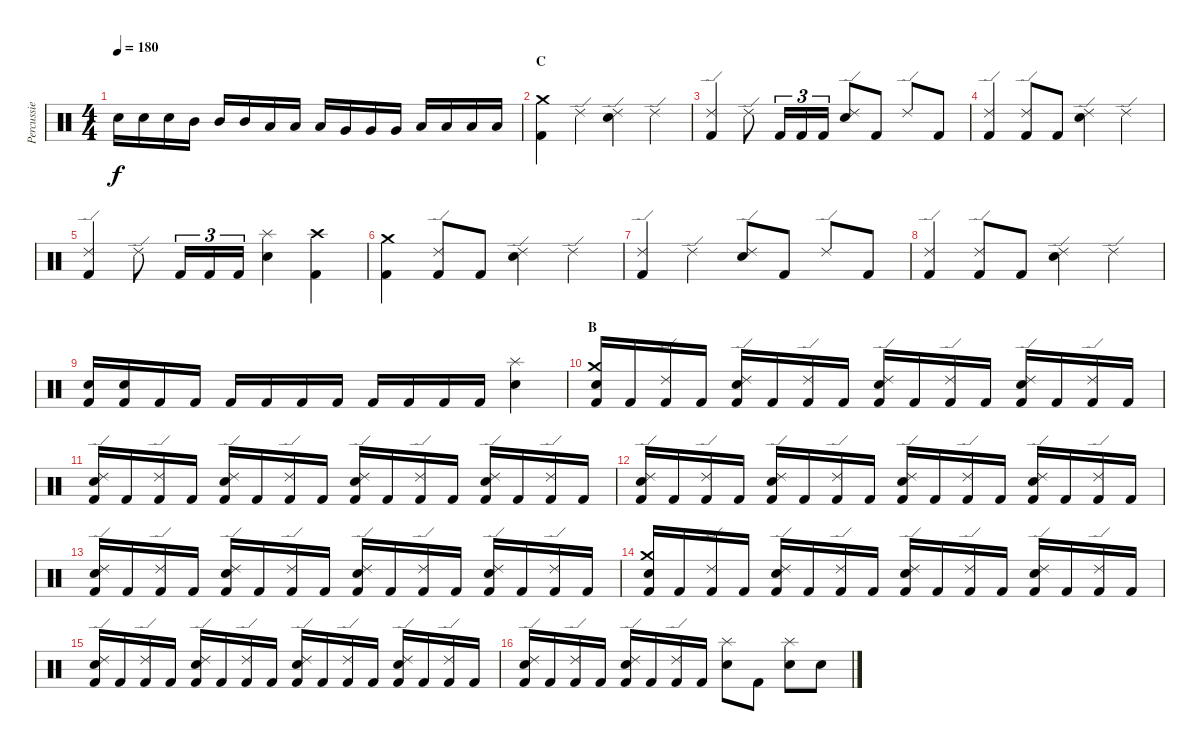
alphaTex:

\track ("Percussie" "Percussie") {instrument percussion}
\staff {score}
\articulation defaults
\ts (4 4)
\tempo 180
\clef neutral
\ks c "Electric Snare (hit)".16{dy f} "Electric Snare (hit)".16 "Electric Snare (hit)".16 "Mid Tom (hit)".16 "Mid Tom (hit)".16 "Mid Tom (hit)".16 "Low Tom (hit)".16 "Low Tom (hit)".16 "Low Tom (hit)".16 "Very Low Tom (hit)".16 "Very Low Tom (hit)".16 "Very Low Tom (hit)".16 "Low Floor Tom (hit)".16 "Low Floor Tom (hit)".16 "Low Floor Tom (hit)".16 "Low Floor Tom (hit)".16
|
\section ("" "C")
("Crash medium (hit)" "Kick (hit) 2").4 "Ride (edge) 2".4 ("Ride (edge) 2" "Electric Snare (hit)").4 "Ride (edge) 2".4 |
("Ride (edge) 2" "Kick (hit) 2").4 "Ride (edge) 2".8 "Kick (hit) 2".16{tu (3 2)} "Kick (hit) 2".16{tu (3 2)} "Kick (hit) 2".16{tu (3 2)} ("Ride (edge) 2" "Electric Snare (hit)").8 "Kick (hit) 2".8 "Ride (edge) 2".8 "Kick (hit) 2".8 |
("Ride (edge) 2" "Kick (hit) 2").4 ("Ride (edge) 2" "Kick (hit) 2").8 "Kick (hit) 2".8 ("Ride (edge) 2" "Electric Snare (hit)").4 "Ride (edge) 2".4 |
("Ride (edge) 2" "Kick (hit) 2").4 "Ride (edge) 2".8 "Kick (hit) 2".16{tu (3 2)} "Kick (hit) 2".16{tu (3 2)} "Kick (hit) 2".16{tu (3 2)} ("Splash (hit)" "Electric Snare (hit)").4 ("Crash high (hit)" "Kick (hit) 2").4 |
("Crash medium (hit)" "Kick (hit) 2").4 ("Ride (edge) 2" "Kick (hit) 2").8 "Kick (hit) 2".8 ("Ride (edge) 2" "Electric Snare (hit)").4 "Ride (edge) 2".4 |
("Ride (edge) 2" "Kick (hit) 2").4 "Ride (edge) 2".4 ("Ride (edge) 2" "Electric Snare (hit)").8 "Kick (hit) 2".8 "Ride (edge) 2".8 "Kick (hit) 2".8 |
("Ride (edge) 2" "Kick (hit) 2").4 ("Ride (edge) 2" "Kick (hit) 2").8 "Kick (hit) 2".8 ("Ride (edge) 2" "Electric Snare (hit)").4 "Ride (edge) 2".4 |
("Electric Snare (hit)" "Kick (hit) 2").16 ("Electric Snare (hit)" "Kick (hit) 2").16 "Kick (hit) 2".16 "Kick (hit) 2".16 "Kick (hit) 2".16 "Kick (hit) 2".16 "Kick (hit) 2".16 "Kick (hit) 2".16 "Kick (hit) 2".16 "Kick (hit) 2".16 "Kick (hit) 2".16 "Kick (hit) 2".16 ("Splash (hit)" "Electric Snare (hit)").4 |
\section ("" "B")
("Crash medium (hit)" "Electric Snare (hit)" "Kick (hit) 2").16 "Kick (hit) 2".16 ("Ride (edge) 2" "Kick (hit) 2").16 "Kick (hit) 2".16 ("Ride (edge) 2" "Electric Snare (hit)" "Kick (hit) 2").16 "Kick (hit) 2".16 ("Ride (edge) 2" "Kick (hit) 2").16 "Kick (hit) 2".16 ("Ride (edge) 2" "Electric Snare (hit)" "Kick (hit) 2").16 "Kick (hit) 2".16 ("Ride (edge) 2" "Kick (hit) 2").16 "Kick (hit) 2".16 ("Ride (edge) 2" "Electric Snare (hit)" "Kick (hit) 2").16 "Kick (hit) 2".16 ("Ride (edge) 2" "Kick (hit) 2").16 "Kick (hit) 2".16 |
("Ride (edge) 2" "Electric Snare (hit)" "Kick (hit) 2").16 "Kick (hit) 2".16 ("Ride (edge) 2" "Kick (hit) 2").16 "Kick (hit) 2".16 ("Ride (edge) 2" "Electric Snare (hit)" "Kick (hit) 2").16 "Kick (hit) 2".16 ("Ride (edge) 2" "Kick (hit) 2").16 "Kick (hit) 2".16 ("Ride (edge) 2" "Electric Snare (hit)" "Kick (hit) 2").16 "Kick (hit) 2".16 ("Ride (edge) 2" "Kick (hit) 2").16 "Kick (hit) 2".16 ("Ride (edge) 2" "Electric Snare (hit)" "Kick (hit) 2").16 "Kick (hit) 2".16 ("Ride (edge) 2" "Kick (hit) 2").16 "Kick (hit) 2".16 |
("Ride (edge) 2" "Electric Snare (hit)" "Kick (hit) 2").16 "Kick (hit) 2".16 ("Ride (edge) 2" "Kick (hit) 2").16 "Kick (hit) 2".16 ("Ride (edge) 2" "Electric Snare (hit)" "Kick (hit) 2").16 "Kick (hit) 2".16 ("Ride (edge) 2" "Kick (hit) 2").16 "Kick (hit) 2".16 ("Ride (edge) 2" "Electric Snare (hit)" "Kick (hit) 2").16 "Kick (hit) 2".16 ("Ride (edge) 2" "Kick (hit) 2").16 "Kick (hit) 2".16 ("Ride (edge) 2" "Electric Snare (hit)" "Kick (hit) 2").16 "Kick (hit) 2".16 ("Ride (edge) 2" "Kick (hit) 2").16 "Kick (hit) 2".16 |
("Ride (edge) 2" "Electric Snare (hit)" "Kick (hit) 2").16 "Kick (hit) 2".16 ("Ride (edge) 2" "Kick (hit) 2").16 "Kick (hit) 2".16 ("Ride (edge) 2" "Electric Snare (hit)" "Kick (hit) 2").16 "Kick (hit) 2".16 ("Ride (edge) 2" "Kick (hit) 2").16 "Kick (hit) 2".16 ("Ride (edge) 2" "Electric Snare (hit)" "Kick (hit) 2").16 "Kick (hit) 2".16 ("Ride (edge) 2" "Kick (hit) 2").16 "Kick (hit) 2".16 ("Ride (edge) 2" "Electric Snare (hit)" "Kick (hit) 2").16 "Kick (hit) 2".16 ("Ride (edge) 2" "Kick (hit) 2").16 "Kick (hit) 2".16 |
("Crash medium (hit)" "Electric Snare (hit)" "Kick (hit) 2").16 "Kick (hit) 2".16 ("Ride (edge) 2" "Kick (hit) 2").16 "Kick (hit) 2".16 ("Ride (edge) 2" "Electric Snare (hit)" "Kick (hit) 2").16 "Kick (hit) 2".16 ("Ride (edge) 2" "Kick (hit) 2").16 "Kick (hit) 2".16 ("Ride (edge) 2" "Electric Snare (hit)" "Kick (hit) 2").16 "Kick (hit) 2".16 ("Ride (edge) 2" "Kick (hit) 2").16 "Kick (hit) 2".16 ("Ride (edge) 2" "Electric Snare (hit)" "Kick (hit) 2").16 "Kick (hit) 2".16 ("Ride (edge) 2" "Kick (hit) 2").16 "Kick (hit) 2".16 |
("Ride (edge) 2" "Electric Snare (hit)" "Kick (hit) 2").16 "Kick (hit) 2".16 ("Ride (edge) 2" "Kick (hit) 2").16 "Kick (hit) 2".16 ("Ride (edge) 2" "Electric Snare (hit)" "Kick (hit) 2").16 "Kick (hit) 2".16 ("Ride (edge) 2" "Kick (hit) 2").16 "Kick (hit) 2".16 ("Ride (edge) 2" "Electric Snare (hit)" "Kick (hit) 2").16 "Kick (hit) 2".16 ("Ride (edge) 2" "Kick (hit) 2").16 "Kick (hit) 2".16 ("Ride (edge) 2" "Electric Snare (hit)" "Kick (hit) 2").16 "Kick (hit) 2".16 ("Ride (edge) 2" "Kick (hit) 2").16 "Kick (hit) 2".16 |
("Ride (edge) 2" "Electric Snare (hit)" "Kick (hit) 2").16 "Kick (hit) 2".16 ("Ride (edge) 2" "Kick (hit) 2").16 "Kick (hit) 2".16 ("Ride (edge) 2" "Electric Snare (hit)" "Kick (hit) 2").16 "Kick (hit) 2".16 ("Ride (edge) 2" "Kick (hit) 2").16 "Kick (hit) 2".16 ("Splash (hit)" "Electric Snare (hit)").8 "Kick (hit) 2".8 ("Splash (hit)" "Electric Snare (hit)").8 "Electric Snare (hit)".8
